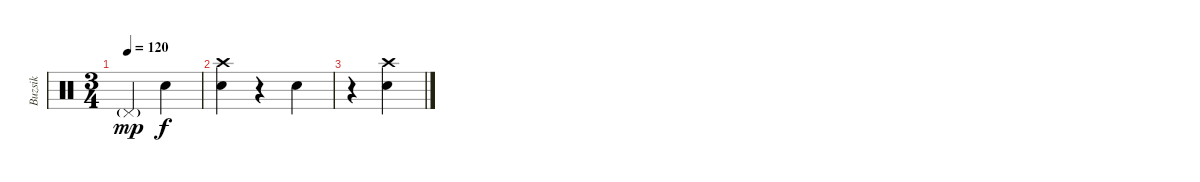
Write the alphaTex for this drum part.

\track ("Buzsik" "Buzsik") {instrument percussion}
\staff {score}
\articulation defaults
\ts (3 4)
\tempo 120
\clef neutral
\ks c "Pedal Hi-Hat (hit)"{g}.4{dy mp} "Snare (hit) 2".4{dy f}
|
("Crash high (hit)" "Snare (hit) 2").4 r.4 "Snare (hit) 2".4 |
r.4 ("Snare (hit) 2" "Crash high (hit)").4
